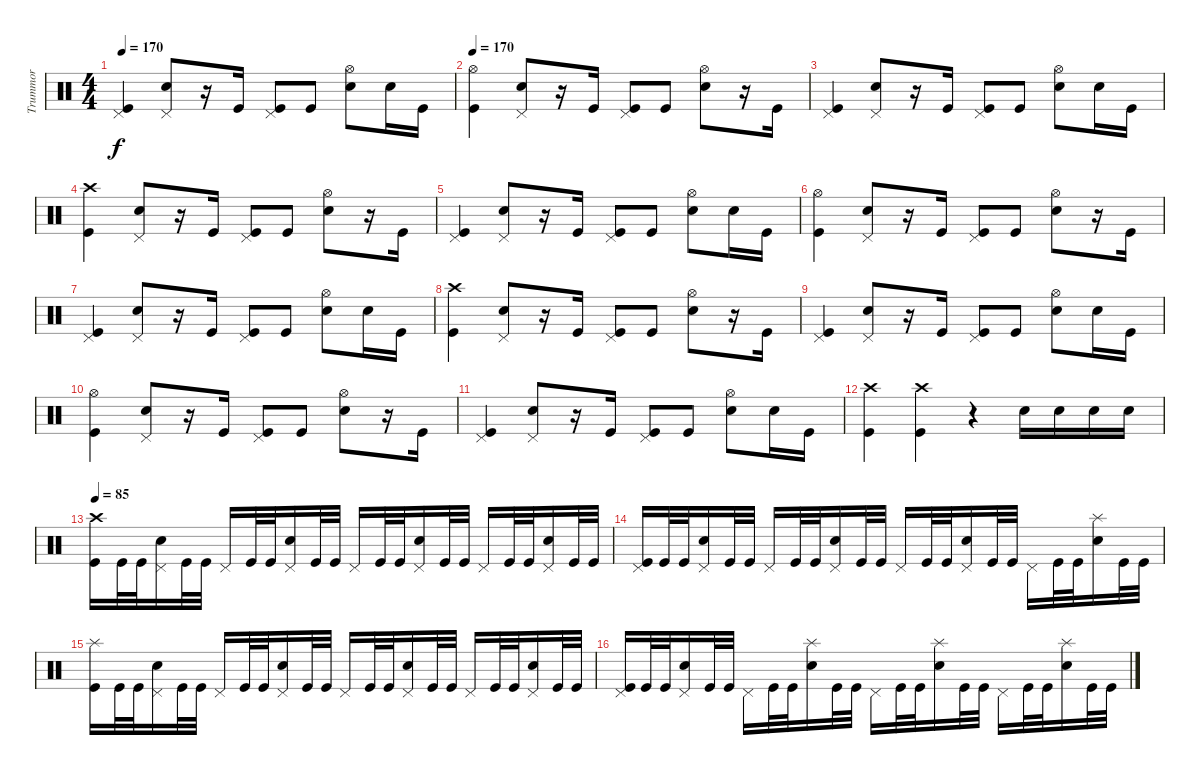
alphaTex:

\track ("Trummor" "Trummor") {instrument percussion}
\staff {score}
\articulation defaults
\ts (4 4)
\tempo 170
\clef neutral
\ks c
("Pedal Hi-Hat (hit)" "Kick (hit)").4{dy f} ("Pedal Hi-Hat (hit)" "Snare (hit) 2").8 r.16 "Kick (hit)".16 ("Pedal Hi-Hat (hit)" "Kick (hit)").8 "Kick (hit)".8 ("Hi-Hat (open)" "Snare (hit) 2").8 "Snare (hit) 2".16 "Kick (hit)".16 |
\tempo 170
("Hi-Hat (open)" "Kick (hit)").4 ("Pedal Hi-Hat (hit)" "Snare (hit) 2").8 r.16 "Kick (hit)".16 ("Pedal Hi-Hat (hit)" "Kick (hit)").8 "Kick (hit)".8 ("Hi-Hat (open)" "Snare (hit) 2").8 r.16 "Kick (hit)".16 |
("Pedal Hi-Hat (hit)" "Kick (hit)").4 ("Pedal Hi-Hat (hit)" "Snare (hit) 2").8 r.16 "Kick (hit)".16 ("Pedal Hi-Hat (hit)" "Kick (hit)").8 "Kick (hit)".8 ("Hi-Hat (open)" "Snare (hit) 2").8 "Snare (hit) 2".16 "Kick (hit)".16 |
("Crash high (hit)" "Kick (hit)").4 ("Pedal Hi-Hat (hit)" "Snare (hit) 2").8 r.16 "Kick (hit)".16 ("Pedal Hi-Hat (hit)" "Kick (hit)").8 "Kick (hit)".8 ("Hi-Hat (open)" "Snare (hit) 2").8 r.16 "Kick (hit)".16 |
("Pedal Hi-Hat (hit)" "Kick (hit)").4 ("Pedal Hi-Hat (hit)" "Snare (hit) 2").8 r.16 "Kick (hit)".16 ("Pedal Hi-Hat (hit)" "Kick (hit)").8 "Kick (hit)".8 ("Hi-Hat (open)" "Snare (hit) 2").8 "Snare (hit) 2".16 "Kick (hit)".16 |
("Hi-Hat (open)" "Kick (hit)").4 ("Pedal Hi-Hat (hit)" "Snare (hit) 2").8 r.16 "Kick (hit)".16 ("Pedal Hi-Hat (hit)" "Kick (hit)").8 "Kick (hit)".8 ("Hi-Hat (open)" "Snare (hit) 2").8 r.16 "Kick (hit)".16 |
("Pedal Hi-Hat (hit)" "Kick (hit)").4 ("Pedal Hi-Hat (hit)" "Snare (hit) 2").8 r.16 "Kick (hit)".16 ("Pedal Hi-Hat (hit)" "Kick (hit)").8 "Kick (hit)".8 ("Hi-Hat (open)" "Snare (hit) 2").8 "Snare (hit) 2".16 "Kick (hit)".16 |
("Crash high (hit)" "Kick (hit)").4 ("Pedal Hi-Hat (hit)" "Snare (hit) 2").8 r.16 "Kick (hit)".16 ("Pedal Hi-Hat (hit)" "Kick (hit)").8 "Kick (hit)".8 ("Hi-Hat (open)" "Snare (hit) 2").8 r.16 "Kick (hit)".16 |
("Pedal Hi-Hat (hit)" "Kick (hit)").4 ("Pedal Hi-Hat (hit)" "Snare (hit) 2").8 r.16 "Kick (hit)".16 ("Pedal Hi-Hat (hit)" "Kick (hit)").8 "Kick (hit)".8 ("Hi-Hat (open)" "Snare (hit) 2").8 "Snare (hit) 2".16 "Kick (hit)".16 |
("Hi-Hat (open)" "Kick (hit)").4 ("Pedal Hi-Hat (hit)" "Snare (hit) 2").8 r.16 "Kick (hit)".16 ("Pedal Hi-Hat (hit)" "Kick (hit)").8 "Kick (hit)".8 ("Hi-Hat (open)" "Snare (hit) 2").8 r.16 "Kick (hit)".16 |
("Pedal Hi-Hat (hit)" "Kick (hit)").4 ("Pedal Hi-Hat (hit)" "Snare (hit) 2").8 r.16 "Kick (hit)".16 ("Pedal Hi-Hat (hit)" "Kick (hit)").8 "Kick (hit)".8 ("Hi-Hat (open)" "Snare (hit) 2").8 "Snare (hit) 2".16 "Kick (hit)".16 |
("Crash high (hit)" "Kick (hit)").4 ("Crash high (hit)" "Kick (hit)").4 r.4 "Snare (hit) 2".16 "Snare (hit) 2".16 "Snare (hit) 2".16 "Snare (hit) 2".16 |
\tempo 85
("Crash high (hit)" "Kick (hit)").16 "Kick (hit)".32 "Kick (hit)".32 ("Pedal Hi-Hat (hit)" "Snare (hit) 2").16 "Kick (hit)".32 "Kick (hit)".32 "Pedal Hi-Hat (hit)".16 "Kick (hit)".32 "Kick (hit)".32 ("Pedal Hi-Hat (hit)" "Snare (hit) 2").16 "Kick (hit)".32 "Kick (hit)".32 "Pedal Hi-Hat (hit)".16 "Kick (hit)".32 "Kick (hit)".32 ("Pedal Hi-Hat (hit)" "Snare (hit) 2").16 "Kick (hit)".32 "Kick (hit)".32 "Pedal Hi-Hat (hit)".16 "Kick (hit)".32 "Kick (hit)".32 ("Pedal Hi-Hat (hit)" "Snare (hit) 2").16 "Kick (hit)".32 "Kick (hit)".32 |
("Pedal Hi-Hat (hit)" "Kick (hit)").16 "Kick (hit)".32 "Kick (hit)".32 ("Pedal Hi-Hat (hit)" "Snare (hit) 2").16 "Kick (hit)".32 "Kick (hit)".32 "Pedal Hi-Hat (hit)".16 "Kick (hit)".32 "Kick (hit)".32 ("Pedal Hi-Hat (hit)" "Snare (hit) 2").16 "Kick (hit)".32 "Kick (hit)".32 "Pedal Hi-Hat (hit)".16 "Kick (hit)".32 "Kick (hit)".32 ("Pedal Hi-Hat (hit)" "Snare (hit) 2").16 "Kick (hit)".32 "Kick (hit)".32 "Pedal Hi-Hat (hit)".16 "Kick (hit)".32 "Kick (hit)".32 ("Splash (hit)" "Snare (hit) 2").16 "Kick (hit)".32 "Kick (hit)".32 |
("Splash (hit)" "Kick (hit)").16 "Kick (hit)".32 "Kick (hit)".32 ("Pedal Hi-Hat (hit)" "Snare (hit) 2").16 "Kick (hit)".32 "Kick (hit)".32 "Pedal Hi-Hat (hit)".16 "Kick (hit)".32 "Kick (hit)".32 ("Pedal Hi-Hat (hit)" "Snare (hit) 2").16 "Kick (hit)".32 "Kick (hit)".32 "Pedal Hi-Hat (hit)".16 "Kick (hit)".32 "Kick (hit)".32 ("Pedal Hi-Hat (hit)" "Snare (hit) 2").16 "Kick (hit)".32 "Kick (hit)".32 "Pedal Hi-Hat (hit)".16 "Kick (hit)".32 "Kick (hit)".32 ("Pedal Hi-Hat (hit)" "Snare (hit) 2").16 "Kick (hit)".32 "Kick (hit)".32 |
("Pedal Hi-Hat (hit)" "Kick (hit)").16 "Kick (hit)".32 "Kick (hit)".32 ("Pedal Hi-Hat (hit)" "Snare (hit) 2").16 "Kick (hit)".32 "Kick (hit)".32 "Pedal Hi-Hat (hit)".16 "Kick (hit)".32 "Kick (hit)".32 ("Splash (hit)" "Snare (hit) 2").16 "Kick (hit)".32 "Kick (hit)".32 "Pedal Hi-Hat (hit)".16 "Kick (hit)".32 "Kick (hit)".32 ("Splash (hit)" "Snare (hit) 2").16 "Kick (hit)".32 "Kick (hit)".32 "Pedal Hi-Hat (hit)".16 "Kick (hit)".32 "Kick (hit)".32 ("Splash (hit)" "Snare (hit) 2").16 "Kick (hit)".32 "Kick (hit)".32
